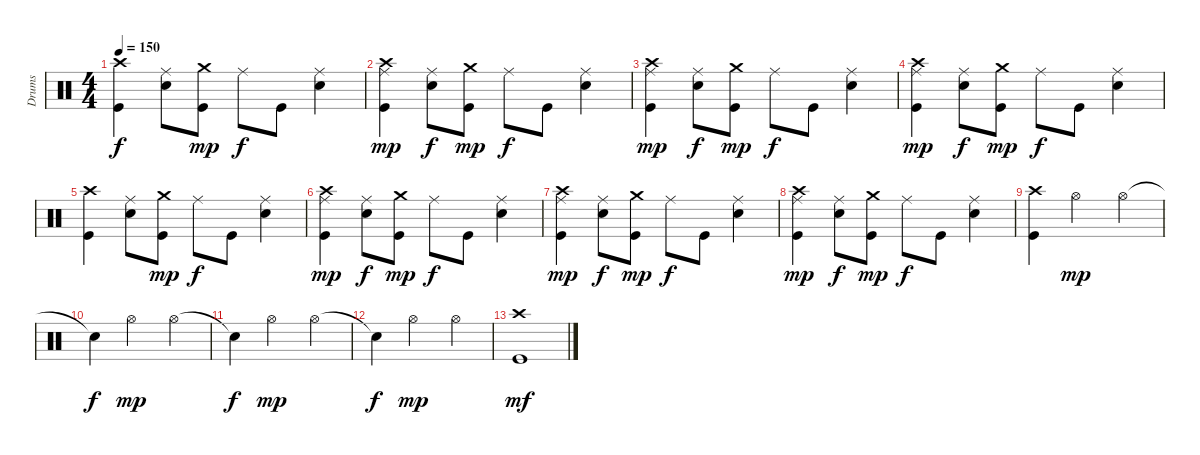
\track ("Drums" "Drums") {instrument percussion}
\staff {score}
\articulation defaults
\ts (4 4)
\tempo 150
\clef neutral
\ks c
("Kick (hit)" "Crash high (hit)").4{dy f} ("Electric Snare (hit)" "Ride (middle)").8 ("Kick (hit)" "Crash medium (hit)").8{dy mp} "Ride (middle)".8{dy f} "Kick (hit)".8 ("Electric Snare (hit)" "Ride (middle)").4 |
("Kick (hit)" "Ride (middle)" "Crash high (hit)").4{dy mp} ("Electric Snare (hit)" "Ride (middle)").8{dy f} ("Kick (hit)" "Crash medium (hit)").8{dy mp} "Ride (middle)".8{dy f} "Kick (hit)".8 ("Electric Snare (hit)" "Ride (middle)").4 |
("Kick (hit)" "Ride (middle)" "Crash high (hit)").4{dy mp} ("Electric Snare (hit)" "Ride (middle)").8{dy f} ("Kick (hit)" "Crash medium (hit)").8{dy mp} "Ride (middle)".8{dy f} "Kick (hit)".8 ("Electric Snare (hit)" "Ride (middle)").4 |
("Kick (hit)" "Ride (middle)" "Crash high (hit)").4{dy mp} ("Electric Snare (hit)" "Ride (middle)").8{dy f} ("Kick (hit)" "Crash medium (hit)").8{dy mp} "Ride (middle)".8{dy f} "Kick (hit)".8 ("Electric Snare (hit)" "Ride (middle)").4 |
("Kick (hit)" "Crash high (hit)").4 ("Electric Snare (hit)" "Ride (middle)").8 ("Kick (hit)" "Crash medium (hit)").8{dy mp} "Ride (middle)".8{dy f} "Kick (hit)".8 ("Electric Snare (hit)" "Ride (middle)").4 |
("Kick (hit)" "Ride (middle)" "Crash high (hit)").4{dy mp} ("Electric Snare (hit)" "Ride (middle)").8{dy f} ("Kick (hit)" "Crash medium (hit)").8{dy mp} "Ride (middle)".8{dy f} "Kick (hit)".8 ("Electric Snare (hit)" "Ride (middle)").4 |
("Kick (hit)" "Ride (middle)" "Crash high (hit)").4{dy mp} ("Electric Snare (hit)" "Ride (middle)").8{dy f} ("Kick (hit)" "Crash medium (hit)").8{dy mp} "Ride (middle)".8{dy f} "Kick (hit)".8 ("Electric Snare (hit)" "Ride (middle)").4 |
("Kick (hit)" "Ride (middle)" "Crash high (hit)").4{dy mp} ("Electric Snare (hit)" "Ride (middle)").8{dy f} ("Kick (hit)" "Crash medium (hit)").8{dy mp} "Ride (middle)".8{dy f} "Kick (hit)".8 ("Electric Snare (hit)" "Ride (middle)").4 |
("Kick (hit)" "Crash high (hit)").4 "Hi-Hat (open)".2{dy mp} "Hi-Hat (open)".4 |
"Snare (hit)"{t}.4{dy f} "Hi-Hat (open)".2{dy mp} "Hi-Hat (open)".4 |
"Snare (hit)"{t}.4{dy f} "Hi-Hat (open)".2{dy mp} "Hi-Hat (open)".4 |
"Snare (hit)"{t}.4{dy f} "Hi-Hat (open)".2{dy mp} "Hi-Hat (open)".4 |
("Kick (hit)" "Crash high (hit)").1{dy mf}
